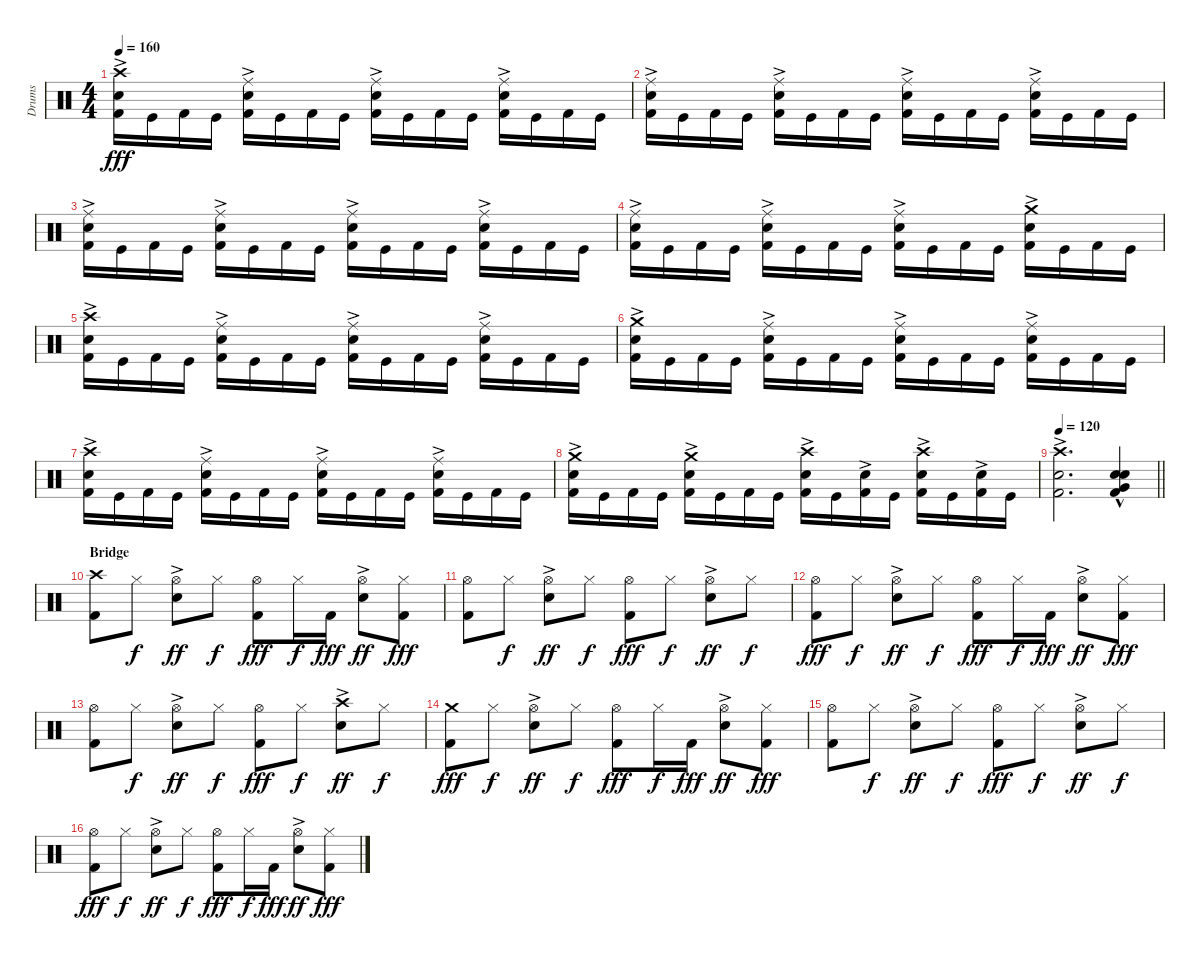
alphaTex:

\track ("Drums" "Drums") {instrument percussion}
\staff {score}
\articulation defaults
\ts (4 4)
\tempo 160
\clef neutral
\ks c
("Crash high (hit)" "Snare (hit) 2"{ac} "Kick (hit) 2").16{dy fff} "Kick (hit)".16 "Kick (hit) 2".16 "Kick (hit)".16 ("Ride (middle)" "Snare (hit) 2"{ac} "Kick (hit) 2").16 "Kick (hit)".16 "Kick (hit) 2".16 "Kick (hit)".16 ("Ride (middle)" "Snare (hit) 2"{ac} "Kick (hit) 2").16 "Kick (hit)".16 "Kick (hit) 2".16 "Kick (hit)".16 ("Ride (middle)" "Snare (hit) 2"{ac} "Kick (hit) 2").16 "Kick (hit)".16 "Kick (hit) 2".16 "Kick (hit)".16 |
("Ride (middle)" "Snare (hit) 2"{ac} "Kick (hit) 2").16 "Kick (hit)".16 "Kick (hit) 2".16 "Kick (hit)".16 ("Ride (middle)" "Snare (hit) 2"{ac} "Kick (hit) 2").16 "Kick (hit)".16 "Kick (hit) 2".16 "Kick (hit)".16 ("Ride (middle)" "Snare (hit) 2"{ac} "Kick (hit) 2").16 "Kick (hit)".16 "Kick (hit) 2".16 "Kick (hit)".16 ("Ride (middle)" "Snare (hit) 2"{ac} "Kick (hit) 2").16 "Kick (hit)".16 "Kick (hit) 2".16 "Kick (hit)".16 |
("Ride (middle)" "Snare (hit) 2"{ac} "Kick (hit) 2").16 "Kick (hit)".16 "Kick (hit) 2".16 "Kick (hit)".16 ("Ride (middle)" "Snare (hit) 2"{ac} "Kick (hit) 2").16 "Kick (hit)".16 "Kick (hit) 2".16 "Kick (hit)".16 ("Ride (middle)" "Snare (hit) 2"{ac} "Kick (hit) 2").16 "Kick (hit)".16 "Kick (hit) 2".16 "Kick (hit)".16 ("Ride (middle)" "Snare (hit) 2"{ac} "Kick (hit) 2").16 "Kick (hit)".16 "Kick (hit) 2".16 "Kick (hit)".16 |
("Ride (middle)" "Snare (hit) 2"{ac} "Kick (hit) 2").16 "Kick (hit)".16 "Kick (hit) 2".16 "Kick (hit)".16 ("Ride (middle)" "Snare (hit) 2"{ac} "Kick (hit) 2").16 "Kick (hit)".16 "Kick (hit) 2".16 "Kick (hit)".16 ("Ride (middle)" "Snare (hit) 2"{ac} "Kick (hit) 2").16 "Kick (hit)".16 "Kick (hit) 2".16 "Kick (hit)".16 ("Crash medium (hit)" "Snare (hit) 2"{ac} "Kick (hit) 2").16 "Kick (hit)".16 "Kick (hit) 2".16 "Kick (hit)".16 |
("Crash high (hit)" "Snare (hit) 2"{ac} "Kick (hit) 2").16 "Kick (hit)".16 "Kick (hit) 2".16 "Kick (hit)".16 ("Ride (middle)" "Snare (hit) 2"{ac} "Kick (hit) 2").16 "Kick (hit)".16 "Kick (hit) 2".16 "Kick (hit)".16 ("Ride (middle)" "Snare (hit) 2"{ac} "Kick (hit) 2").16 "Kick (hit)".16 "Kick (hit) 2".16 "Kick (hit)".16 ("Ride (middle)" "Snare (hit) 2"{ac} "Kick (hit) 2").16 "Kick (hit)".16 "Kick (hit) 2".16 "Kick (hit)".16 |
("Crash medium (hit)" "Snare (hit) 2"{ac} "Kick (hit) 2").16 "Kick (hit)".16 "Kick (hit) 2".16 "Kick (hit)".16 ("Ride (middle)" "Snare (hit) 2"{ac} "Kick (hit) 2").16 "Kick (hit)".16 "Kick (hit) 2".16 "Kick (hit)".16 ("Ride (middle)" "Snare (hit) 2"{ac} "Kick (hit) 2").16 "Kick (hit)".16 "Kick (hit) 2".16 "Kick (hit)".16 ("Ride (middle)" "Snare (hit) 2"{ac} "Kick (hit) 2").16 "Kick (hit)".16 "Kick (hit) 2".16 "Kick (hit)".16 |
("Crash high (hit)" "Snare (hit) 2"{ac} "Kick (hit) 2").16 "Kick (hit)".16 "Kick (hit) 2".16 "Kick (hit)".16 ("Ride (middle)" "Snare (hit) 2"{ac} "Kick (hit) 2").16 "Kick (hit)".16 "Kick (hit) 2".16 "Kick (hit)".16 ("Ride (middle)" "Snare (hit) 2"{ac} "Kick (hit) 2").16 "Kick (hit)".16 "Kick (hit) 2".16 "Kick (hit)".16 ("Ride (middle)" "Snare (hit) 2"{ac} "Kick (hit) 2").16 "Kick (hit)".16 "Kick (hit) 2".16 "Kick (hit)".16 |
("Crash medium (hit)" "Snare (hit) 2"{ac} "Kick (hit) 2").16 "Kick (hit)".16 "Kick (hit) 2".16 "Kick (hit)".16 ("Crash medium (hit)" "Snare (hit) 2"{ac} "Kick (hit) 2").16 "Kick (hit)".16 "Kick (hit) 2".16 "Kick (hit)".16 ("Crash high (hit)" "Snare (hit) 2"{ac} "Kick (hit) 2").16 "Kick (hit)".16 ("Snare (hit) 2"{ac} "Kick (hit) 2").16 "Kick (hit)".16 ("Crash high (hit)" "Snare (hit) 2"{ac} "Kick (hit) 2").16 "Kick (hit)".16 ("Snare (hit) 2"{ac} "Kick (hit) 2").16 "Kick (hit)".16 |
\tempo 120
\barLineRight lightlight
("Crash high (hit)" "Snare (hit) 2"{ac} "Kick (hit) 2").2{d} ("Electric Snare (hit)"{hac} "Snare (hit) 2"{hac} "Very Low Tom (hit)"{hac} "Kick (hit) 2").4 |
\section ("" "Bridge")
("Crash high (hit)" "Kick (hit) 2").8 "Hi-Hat (closed)".8{dy f} ("Hi-Hat (open)" "Snare (hit) 2"{ac}).8{dy ff} "Hi-Hat (closed)".8{dy f} ("Hi-Hat (open)" "Kick (hit) 2").8{dy fff} "Hi-Hat (closed)".16{dy f} "Kick (hit) 2".16{dy fff} ("Hi-Hat (open)" "Snare (hit) 2"{ac}).8{dy ff} ("Hi-Hat (closed)" "Kick (hit) 2").8{dy fff} |
("Hi-Hat (open)" "Kick (hit) 2").8 "Hi-Hat (closed)".8{dy f} ("Hi-Hat (open)" "Snare (hit) 2"{ac}).8{dy ff} "Hi-Hat (closed)".8{dy f} ("Hi-Hat (open)" "Kick (hit) 2").8{dy fff} "Hi-Hat (closed)".8{dy f} ("Hi-Hat (open)" "Snare (hit) 2"{ac}).8{dy ff} "Hi-Hat (closed)".8{dy f} |
("Hi-Hat (open)" "Kick (hit) 2").8{dy fff} "Hi-Hat (closed)".8{dy f} ("Hi-Hat (open)" "Snare (hit) 2"{ac}).8{dy ff} "Hi-Hat (closed)".8{dy f} ("Hi-Hat (open)" "Kick (hit) 2").8{dy fff} "Hi-Hat (closed)".16{dy f} "Kick (hit) 2".16{dy fff} ("Hi-Hat (open)" "Snare (hit) 2"{ac}).8{dy ff} ("Hi-Hat (closed)" "Kick (hit) 2").8{dy fff} |
("Hi-Hat (open)" "Kick (hit) 2").8 "Hi-Hat (closed)".8{dy f} ("Hi-Hat (open)" "Snare (hit) 2"{ac}).8{dy ff} "Hi-Hat (closed)".8{dy f} ("Hi-Hat (open)" "Kick (hit) 2").8{dy fff} "Hi-Hat (closed)".8{dy f} ("Crash high (hit)" "Snare (hit) 2"{ac}).8{dy ff} "Hi-Hat (closed)".8{dy f} |
("Crash medium (hit)" "Kick (hit) 2").8{dy fff} "Hi-Hat (closed)".8{dy f} ("Hi-Hat (open)" "Snare (hit) 2"{ac}).8{dy ff} "Hi-Hat (closed)".8{dy f} ("Hi-Hat (open)" "Kick (hit) 2").8{dy fff} "Hi-Hat (closed)".16{dy f} "Kick (hit) 2".16{dy fff} ("Hi-Hat (open)" "Snare (hit) 2"{ac}).8{dy ff} ("Hi-Hat (closed)" "Kick (hit) 2").8{dy fff} |
("Hi-Hat (open)" "Kick (hit) 2").8 "Hi-Hat (closed)".8{dy f} ("Hi-Hat (open)" "Snare (hit) 2"{ac}).8{dy ff} "Hi-Hat (closed)".8{dy f} ("Hi-Hat (open)" "Kick (hit) 2").8{dy fff} "Hi-Hat (closed)".8{dy f} ("Hi-Hat (open)" "Snare (hit) 2"{ac}).8{dy ff} "Hi-Hat (closed)".8{dy f} |
("Hi-Hat (open)" "Kick (hit) 2").8{dy fff} "Hi-Hat (closed)".8{dy f} ("Hi-Hat (open)" "Snare (hit) 2"{ac}).8{dy ff} "Hi-Hat (closed)".8{dy f} ("Hi-Hat (open)" "Kick (hit) 2").8{dy fff} "Hi-Hat (closed)".16{dy f} "Kick (hit) 2".16{dy fff} ("Hi-Hat (open)" "Snare (hit) 2"{ac}).8{dy ff} ("Hi-Hat (closed)" "Kick (hit) 2").8{dy fff}
